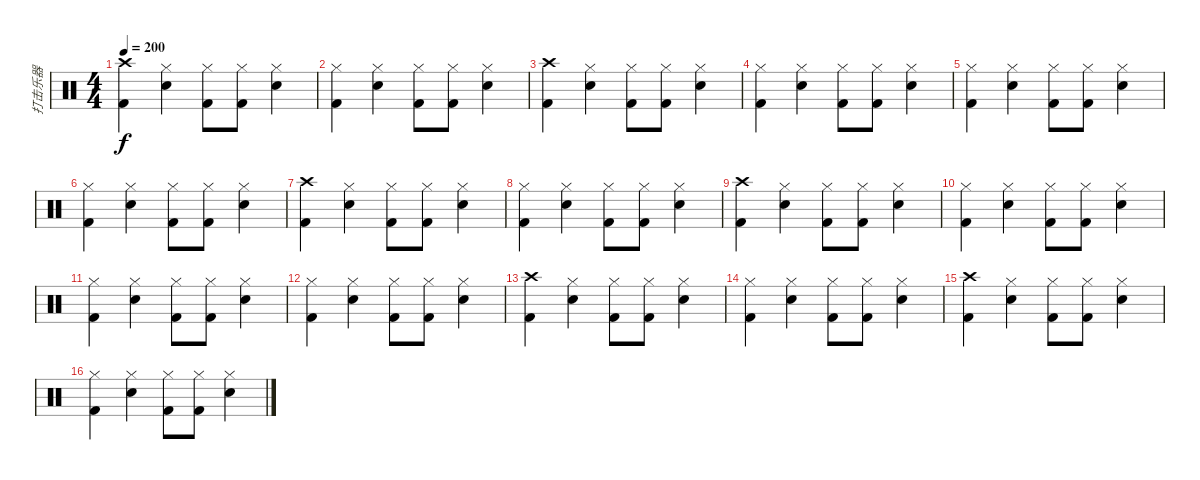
\track ("打击乐器" "打击乐器") {instrument percussion}
\staff {score}
\articulation defaults
\ts (4 4)
\tempo 200
\clef neutral
\ks c
("Crash high (hit)" "Kick (hit) 2").4{dy f} ("Hi-Hat (closed)" "Snare (hit) 2").4 ("Hi-Hat (closed)" "Kick (hit) 2").8 ("Hi-Hat (closed)" "Kick (hit) 2").8 ("Hi-Hat (closed)" "Snare (hit) 2").4 |
("Hi-Hat (closed)" "Kick (hit) 2").4 ("Hi-Hat (closed)" "Snare (hit) 2").4 ("Hi-Hat (closed)" "Kick (hit) 2").8 ("Hi-Hat (closed)" "Kick (hit) 2").8 ("Hi-Hat (closed)" "Snare (hit) 2").4 |
("Crash high (hit)" "Kick (hit) 2").4 ("Hi-Hat (closed)" "Snare (hit) 2").4 ("Hi-Hat (closed)" "Kick (hit) 2").8 ("Hi-Hat (closed)" "Kick (hit) 2").8 ("Hi-Hat (closed)" "Snare (hit) 2").4 |
("Hi-Hat (closed)" "Kick (hit) 2").4 ("Hi-Hat (closed)" "Snare (hit) 2").4 ("Hi-Hat (closed)" "Kick (hit) 2").8 ("Hi-Hat (closed)" "Kick (hit) 2").8 ("Hi-Hat (closed)" "Snare (hit) 2").4 |
("Hi-Hat (closed)" "Kick (hit) 2").4 ("Hi-Hat (closed)" "Snare (hit) 2").4 ("Hi-Hat (closed)" "Kick (hit) 2").8 ("Hi-Hat (closed)" "Kick (hit) 2").8 ("Hi-Hat (closed)" "Snare (hit) 2").4 |
("Hi-Hat (closed)" "Kick (hit) 2").4 ("Hi-Hat (closed)" "Snare (hit) 2").4 ("Hi-Hat (closed)" "Kick (hit) 2").8 ("Hi-Hat (closed)" "Kick (hit) 2").8 ("Hi-Hat (closed)" "Snare (hit) 2").4 |
("Crash high (hit)" "Kick (hit) 2").4 ("Hi-Hat (closed)" "Snare (hit) 2").4 ("Hi-Hat (closed)" "Kick (hit) 2").8 ("Hi-Hat (closed)" "Kick (hit) 2").8 ("Hi-Hat (closed)" "Snare (hit) 2").4 |
("Hi-Hat (closed)" "Kick (hit) 2").4 ("Hi-Hat (closed)" "Snare (hit) 2").4 ("Hi-Hat (closed)" "Kick (hit) 2").8 ("Hi-Hat (closed)" "Kick (hit) 2").8 ("Hi-Hat (closed)" "Snare (hit) 2").4 |
("Crash high (hit)" "Kick (hit) 2").4 ("Hi-Hat (closed)" "Snare (hit) 2").4 ("Hi-Hat (closed)" "Kick (hit) 2").8 ("Hi-Hat (closed)" "Kick (hit) 2").8 ("Hi-Hat (closed)" "Snare (hit) 2").4 |
("Hi-Hat (closed)" "Kick (hit) 2").4 ("Hi-Hat (closed)" "Snare (hit) 2").4 ("Hi-Hat (closed)" "Kick (hit) 2").8 ("Hi-Hat (closed)" "Kick (hit) 2").8 ("Hi-Hat (closed)" "Snare (hit) 2").4 |
("Hi-Hat (closed)" "Kick (hit) 2").4 ("Hi-Hat (closed)" "Snare (hit) 2").4 ("Hi-Hat (closed)" "Kick (hit) 2").8 ("Hi-Hat (closed)" "Kick (hit) 2").8 ("Hi-Hat (closed)" "Snare (hit) 2").4 |
("Hi-Hat (closed)" "Kick (hit) 2").4 ("Hi-Hat (closed)" "Snare (hit) 2").4 ("Hi-Hat (closed)" "Kick (hit) 2").8 ("Hi-Hat (closed)" "Kick (hit) 2").8 ("Hi-Hat (closed)" "Snare (hit) 2").4 |
("Crash high (hit)" "Kick (hit) 2").4 ("Hi-Hat (closed)" "Snare (hit) 2").4 ("Hi-Hat (closed)" "Kick (hit) 2").8 ("Hi-Hat (closed)" "Kick (hit) 2").8 ("Hi-Hat (closed)" "Snare (hit) 2").4 |
("Hi-Hat (closed)" "Kick (hit) 2").4 ("Hi-Hat (closed)" "Snare (hit) 2").4 ("Hi-Hat (closed)" "Kick (hit) 2").8 ("Hi-Hat (closed)" "Kick (hit) 2").8 ("Hi-Hat (closed)" "Snare (hit) 2").4 |
("Crash high (hit)" "Kick (hit) 2").4 ("Hi-Hat (closed)" "Snare (hit) 2").4 ("Hi-Hat (closed)" "Kick (hit) 2").8 ("Hi-Hat (closed)" "Kick (hit) 2").8 ("Hi-Hat (closed)" "Snare (hit) 2").4 |
("Hi-Hat (closed)" "Kick (hit) 2").4 ("Hi-Hat (closed)" "Snare (hit) 2").4 ("Hi-Hat (closed)" "Kick (hit) 2").8 ("Hi-Hat (closed)" "Kick (hit) 2").8 ("Hi-Hat (closed)" "Snare (hit) 2").4
